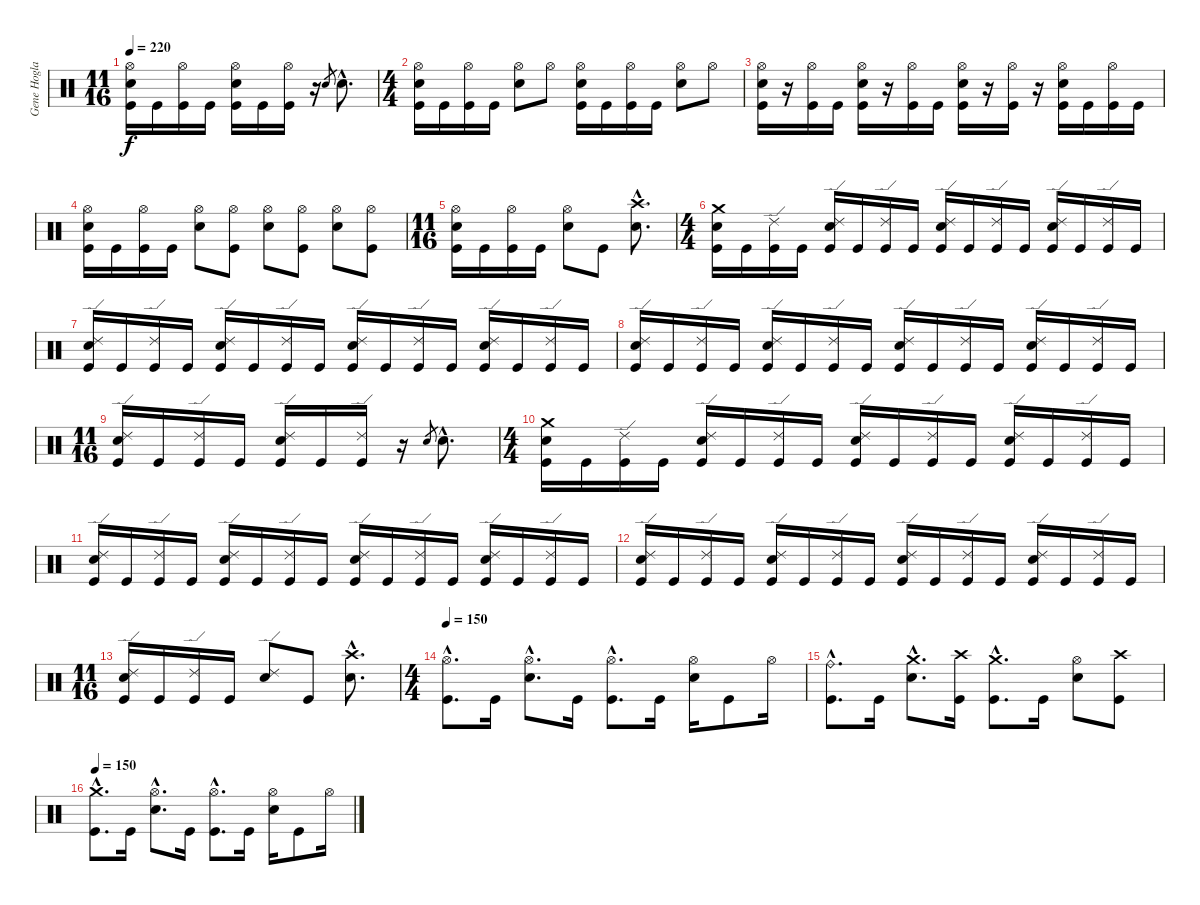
\track ("Gene Hoglan" "Gene Hogla") {instrument percussion}
\staff {score}
\articulation defaults
\ts (11 16)
\tempo 220
\clef neutral
\ks c
("Hi-Hat (open)" "Electric Snare (hit)" "Kick (hit)").16{dy f} "Kick (hit)".16 ("Hi-Hat (open)" "Kick (hit)").16 "Kick (hit)".16 ("Hi-Hat (open)" "Electric Snare (hit)" "Kick (hit)").16 "Kick (hit)".16 ("Hi-Hat (open)" "Kick (hit)").16 r.16 "Electric Snare (hit)".8{gr} "Electric Snare (hit)"{hac}.8{d} |
\ts (4 4)
("Hi-Hat (open)" "Electric Snare (hit)" "Kick (hit)").16 "Kick (hit)".16 ("Hi-Hat (open)" "Kick (hit)").16 "Kick (hit)".16 ("Hi-Hat (open)" "Electric Snare (hit)").8 "Hi-Hat (open)".8 ("Hi-Hat (open)" "Electric Snare (hit)" "Kick (hit)").16 "Kick (hit)".16 ("Hi-Hat (open)" "Kick (hit)").16 "Kick (hit)".16 ("Hi-Hat (open)" "Electric Snare (hit)").8 "Hi-Hat (open)".8 |
("Hi-Hat (open)" "Electric Snare (hit)" "Kick (hit)").16 r.16 ("Hi-Hat (open)" "Kick (hit)").16 "Kick (hit)".16 ("Hi-Hat (open)" "Electric Snare (hit)" "Kick (hit)").16 r.16 ("Hi-Hat (open)" "Kick (hit)").16 "Kick (hit)".16 ("Hi-Hat (open)" "Electric Snare (hit)" "Kick (hit)").16 r.16 ("Hi-Hat (open)" "Kick (hit)").16 r.16 ("Hi-Hat (open)" "Electric Snare (hit)" "Kick (hit)").16 "Kick (hit)".16 ("Hi-Hat (open)" "Kick (hit)").16 "Kick (hit)".16 |
("Hi-Hat (open)" "Electric Snare (hit)" "Kick (hit)").16 "Kick (hit)".16 ("Hi-Hat (open)" "Kick (hit)").16 "Kick (hit)".16 ("Hi-Hat (open)" "Electric Snare (hit)").8 ("Hi-Hat (open)" "Kick (hit)").8 ("Hi-Hat (open)" "Electric Snare (hit)").8 ("Hi-Hat (open)" "Kick (hit)").8 ("Hi-Hat (open)" "Electric Snare (hit)").8 ("Hi-Hat (open)" "Kick (hit)").8 |
\ts (11 16)
("Hi-Hat (open)" "Electric Snare (hit)" "Kick (hit)").16 "Kick (hit)".16 ("Hi-Hat (open)" "Kick (hit)").16 "Kick (hit)".16 ("Hi-Hat (open)" "Electric Snare (hit)").8 "Kick (hit)".8 ("Crash high (hit)"{hac} "Electric Snare (hit)"{hac}).8{d} |
\ts (4 4)
("Crash medium (hit)" "Electric Snare (hit)" "Kick (hit)").16 "Kick (hit)".16 ("Ride (edge) 2" "Kick (hit)").16 "Kick (hit)".16 ("Ride (edge) 2" "Electric Snare (hit)" "Kick (hit)").16 "Kick (hit)".16 ("Ride (edge) 2" "Kick (hit)").16 "Kick (hit)".16 ("Ride (edge) 2" "Electric Snare (hit)" "Kick (hit)").16 "Kick (hit)".16 ("Ride (edge) 2" "Kick (hit)").16 "Kick (hit)".16 ("Ride (edge) 2" "Electric Snare (hit)" "Kick (hit)").16 "Kick (hit)".16 ("Ride (edge) 2" "Kick (hit)").16 "Kick (hit)".16 |
("Ride (edge) 2" "Electric Snare (hit)" "Kick (hit)").16 "Kick (hit)".16 ("Ride (edge) 2" "Kick (hit)").16 "Kick (hit)".16 ("Ride (edge) 2" "Electric Snare (hit)" "Kick (hit)").16 "Kick (hit)".16 ("Ride (edge) 2" "Kick (hit)").16 "Kick (hit)".16 ("Ride (edge) 2" "Electric Snare (hit)" "Kick (hit)").16 "Kick (hit)".16 ("Ride (edge) 2" "Kick (hit)").16 "Kick (hit)".16 ("Ride (edge) 2" "Electric Snare (hit)" "Kick (hit)").16 "Kick (hit)".16 ("Ride (edge) 2" "Kick (hit)").16 "Kick (hit)".16 |
("Ride (edge) 2" "Electric Snare (hit)" "Kick (hit)").16 "Kick (hit)".16 ("Ride (edge) 2" "Kick (hit)").16 "Kick (hit)".16 ("Ride (edge) 2" "Electric Snare (hit)" "Kick (hit)").16 "Kick (hit)".16 ("Ride (edge) 2" "Kick (hit)").16 "Kick (hit)".16 ("Ride (edge) 2" "Electric Snare (hit)" "Kick (hit)").16 "Kick (hit)".16 ("Ride (edge) 2" "Kick (hit)").16 "Kick (hit)".16 ("Ride (edge) 2" "Electric Snare (hit)" "Kick (hit)").16 "Kick (hit)".16 ("Ride (edge) 2" "Kick (hit)").16 "Kick (hit)".16 |
\ts (11 16)
("Ride (edge) 2" "Electric Snare (hit)" "Kick (hit)").16 "Kick (hit)".16 ("Ride (edge) 2" "Kick (hit)").16 "Kick (hit)".16 ("Ride (edge) 2" "Electric Snare (hit)" "Kick (hit)").16 "Kick (hit)".16 ("Ride (edge) 2" "Kick (hit)").16 r.16 "Electric Snare (hit)".8{gr} "Electric Snare (hit)"{hac}.8{d} |
\ts (4 4)
("Crash medium (hit)" "Electric Snare (hit)" "Kick (hit)").16 "Kick (hit)".16 ("Ride (edge) 2" "Kick (hit)").16 "Kick (hit)".16 ("Ride (edge) 2" "Electric Snare (hit)" "Kick (hit)").16 "Kick (hit)".16 ("Ride (edge) 2" "Kick (hit)").16 "Kick (hit)".16 ("Ride (edge) 2" "Electric Snare (hit)" "Kick (hit)").16 "Kick (hit)".16 ("Ride (edge) 2" "Kick (hit)").16 "Kick (hit)".16 ("Ride (edge) 2" "Electric Snare (hit)" "Kick (hit)").16 "Kick (hit)".16 ("Ride (edge) 2" "Kick (hit)").16 "Kick (hit)".16 |
("Ride (edge) 2" "Electric Snare (hit)" "Kick (hit)").16 "Kick (hit)".16 ("Ride (edge) 2" "Kick (hit)").16 "Kick (hit)".16 ("Ride (edge) 2" "Electric Snare (hit)" "Kick (hit)").16 "Kick (hit)".16 ("Ride (edge) 2" "Kick (hit)").16 "Kick (hit)".16 ("Ride (edge) 2" "Electric Snare (hit)" "Kick (hit)").16 "Kick (hit)".16 ("Ride (edge) 2" "Kick (hit)").16 "Kick (hit)".16 ("Ride (edge) 2" "Electric Snare (hit)" "Kick (hit)").16 "Kick (hit)".16 ("Ride (edge) 2" "Kick (hit)").16 "Kick (hit)".16 |
("Ride (edge) 2" "Electric Snare (hit)" "Kick (hit)").16 "Kick (hit)".16 ("Ride (edge) 2" "Kick (hit)").16 "Kick (hit)".16 ("Ride (edge) 2" "Electric Snare (hit)" "Kick (hit)").16 "Kick (hit)".16 ("Ride (edge) 2" "Kick (hit)").16 "Kick (hit)".16 ("Ride (edge) 2" "Electric Snare (hit)" "Kick (hit)").16 "Kick (hit)".16 ("Ride (edge) 2" "Kick (hit)").16 "Kick (hit)".16 ("Ride (edge) 2" "Electric Snare (hit)" "Kick (hit)").16 "Kick (hit)".16 ("Ride (edge) 2" "Kick (hit)").16 "Kick (hit)".16 |
\ts (11 16)
("Ride (edge) 2" "Electric Snare (hit)" "Kick (hit)").16 "Kick (hit)".16 ("Ride (edge) 2" "Kick (hit)").16 "Kick (hit)".16 ("Ride (edge) 2" "Electric Snare (hit)").8 "Kick (hit)".8 ("Crash high (hit)"{hac} "Electric Snare (hit)"{hac}).8{d} |
\ts (4 4)
\tempo 150
("Hi-Hat (open)"{hac} "Kick (hit)"{hac}).8{d} "Kick (hit)".16 ("Hi-Hat (open)"{hac} "Electric Snare (hit)"{hac}).8{d} "Kick (hit)".16 ("Hi-Hat (open)"{hac} "Kick (hit)"{hac}).8{d} "Kick (hit)".16 ("Hi-Hat (open)" "Electric Snare (hit)").16 "Kick (hit)".8 "Hi-Hat (open)".16 |
("Ride (bell)"{hac} "Kick (hit)"{hac}).8{d} "Kick (hit)".16 ("Crash medium (hit)"{hac} "Electric Snare (hit)"{hac}).8{d} ("Crash high (hit)" "Kick (hit)").16 ("Crash medium (hit)"{hac} "Kick (hit)"{hac}).8{d} "Kick (hit)".16 ("Hi-Hat (open)" "Electric Snare (hit)").8 ("Crash high (hit)" "Kick (hit)").8 |
\tempo 150
("Crash medium (hit)"{hac} "Kick (hit)"{hac}).8{d} "Kick (hit)".16 ("Hi-Hat (open)"{hac} "Electric Snare (hit)"{hac}).8{d} "Kick (hit)".16 ("Hi-Hat (open)"{hac} "Kick (hit)"{hac}).8{d} "Kick (hit)".16 ("Hi-Hat (open)" "Electric Snare (hit)").16 "Kick (hit)".8 "Hi-Hat (open)".16
